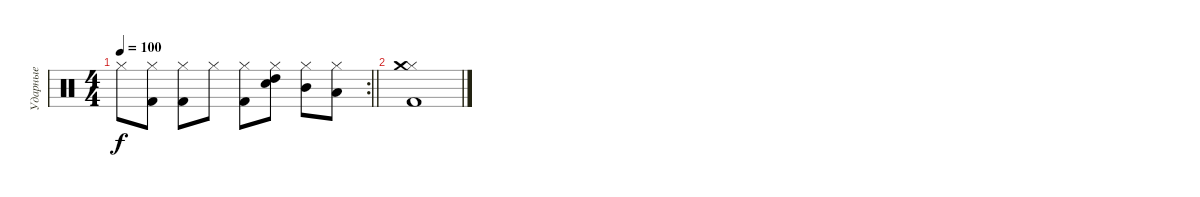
\track ("Ударные" "Ударные") {instrument percussion}
\staff {score}
\articulation defaults
\rc 2
\ts (4 4)
\tempo 100
\clef neutral
\barLineRight lightlight
\ks c "Hi-Hat (closed)".8{dy f}
("Hi-Hat (closed)" "Kick (hit) 2").8 ("Hi-Hat (closed)" "Kick (hit) 2").8 "Hi-Hat (closed)".8 ("Hi-Hat (closed)" "Kick (hit) 2").8 ("Hi-Hat (closed)" "Electric Snare (hit)" "High Tom (hit)").8 ("Hi-Hat (closed)" "Mid Tom (hit)").8 ("Hi-Hat (closed)" "Low Tom (hit)").8 |
("Hi-Hat (closed)" "Kick (hit) 2" "Crash medium (hit)").1
